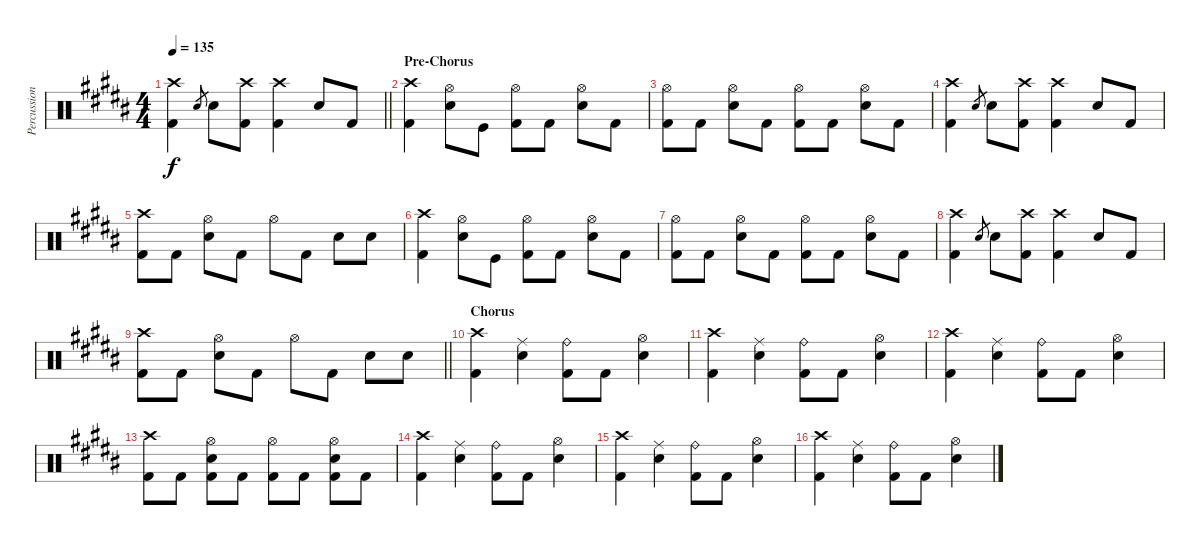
\track ("Percussion" "Percussion") {instrument percussion}
\staff {score}
\articulation defaults
\ts (4 4)
\tempo 135
\clef neutral
\barLineRight lightlight
\ks b
("Crash high (hit)" "Kick (hit) 2").4{dy f} "Electric Snare (hit)".8{gr} "Electric Snare (hit)".8 ("Crash high (hit)" "Kick (hit) 2").8 ("Crash high (hit)" "Kick (hit) 2").4 "Electric Snare (hit)".8 "Kick (hit) 2".8 |
\section ("" "Pre-Chorus")
("Crash high (hit)" "Kick (hit) 2").4 ("Electric Snare (hit)" "Hi-Hat (open)").8 "Kick (hit)".8 ("Hi-Hat (open)" "Kick (hit) 2").8 "Kick (hit) 2".8 ("Electric Snare (hit)" "Hi-Hat (open)").8 "Kick (hit) 2".8 |
("Hi-Hat (open)" "Kick (hit) 2").8 "Kick (hit) 2".8 ("Electric Snare (hit)" "Hi-Hat (open)").8 "Kick (hit) 2".8 ("Hi-Hat (open)" "Kick (hit) 2").8 "Kick (hit) 2".8 ("Electric Snare (hit)" "Hi-Hat (open)").8 "Kick (hit) 2".8 |
("Crash high (hit)" "Kick (hit) 2").4 "Electric Snare (hit)".8{gr} "Electric Snare (hit)".8 ("Crash high (hit)" "Kick (hit) 2").8 ("Crash high (hit)" "Kick (hit) 2").4 "Electric Snare (hit)".8 "Kick (hit) 2".8 |
("Crash high (hit)" "Kick (hit) 2").8 "Kick (hit) 2".8 ("Hi-Hat (open)" "Electric Snare (hit)").8 "Kick (hit) 2".8 "Hi-Hat (open)".8 "Kick (hit) 2".8 "Electric Snare (hit)".8 "Electric Snare (hit)".8 |
("Crash high (hit)" "Kick (hit) 2").4 ("Electric Snare (hit)" "Hi-Hat (open)").8 "Kick (hit)".8 ("Hi-Hat (open)" "Kick (hit) 2").8 "Kick (hit) 2".8 ("Electric Snare (hit)" "Hi-Hat (open)").8 "Kick (hit) 2".8 |
("Hi-Hat (open)" "Kick (hit) 2").8 "Kick (hit) 2".8 ("Electric Snare (hit)" "Hi-Hat (open)").8 "Kick (hit) 2".8 ("Hi-Hat (open)" "Kick (hit) 2").8 "Kick (hit) 2".8 ("Electric Snare (hit)" "Hi-Hat (open)").8 "Kick (hit) 2".8 |
("Crash high (hit)" "Kick (hit) 2").4 "Electric Snare (hit)".8{gr} "Electric Snare (hit)".8 ("Crash high (hit)" "Kick (hit) 2").8 ("Crash high (hit)" "Kick (hit) 2").4 "Electric Snare (hit)".8 "Kick (hit) 2".8 |
\barLineRight lightlight
("Crash high (hit)" "Kick (hit) 2").8 "Kick (hit) 2".8 ("Hi-Hat (open)" "Electric Snare (hit)").8 "Kick (hit) 2".8 "Hi-Hat (open)".8 "Kick (hit) 2".8 "Electric Snare (hit)".8 "Electric Snare (hit)".8 |
\section ("" "Chorus")
("Crash high (hit)" "Kick (hit) 2").4 ("Ride (middle)" "Electric Snare (hit)").4 ("Ride (bell)" "Kick (hit) 2").8 "Kick (hit) 2".8 ("Hi-Hat (open)" "Electric Snare (hit)").4 |
("Crash high (hit)" "Kick (hit) 2").4 ("Ride (middle)" "Electric Snare (hit)").4 ("Ride (bell)" "Kick (hit) 2").8 "Kick (hit) 2".8 ("Hi-Hat (open)" "Electric Snare (hit)").4 |
("Crash high (hit)" "Kick (hit) 2").4 ("Ride (middle)" "Electric Snare (hit)").4 ("Ride (bell)" "Kick (hit) 2").8 "Kick (hit) 2".8 ("Hi-Hat (open)" "Electric Snare (hit)").4 |
("Crash high (hit)" "Kick (hit) 2").8 "Kick (hit) 2".8 ("Hi-Hat (open)" "Electric Snare (hit)" "Kick (hit) 2").8 "Kick (hit) 2".8 ("Hi-Hat (open)" "Kick (hit) 2").8 "Kick (hit) 2".8 ("Hi-Hat (open)" "Electric Snare (hit)" "Kick (hit) 2").8 "Kick (hit) 2".8 |
("Crash high (hit)" "Kick (hit) 2").4 ("Ride (middle)" "Electric Snare (hit)").4 ("Ride (bell)" "Kick (hit) 2").8 "Kick (hit) 2".8 ("Hi-Hat (open)" "Electric Snare (hit)").4 |
("Crash high (hit)" "Kick (hit) 2").4 ("Ride (middle)" "Electric Snare (hit)").4 ("Ride (bell)" "Kick (hit) 2").8 "Kick (hit) 2".8 ("Hi-Hat (open)" "Electric Snare (hit)").4 |
("Crash high (hit)" "Kick (hit) 2").4 ("Ride (middle)" "Electric Snare (hit)").4 ("Ride (bell)" "Kick (hit) 2").8 "Kick (hit) 2".8 ("Hi-Hat (open)" "Electric Snare (hit)").4
